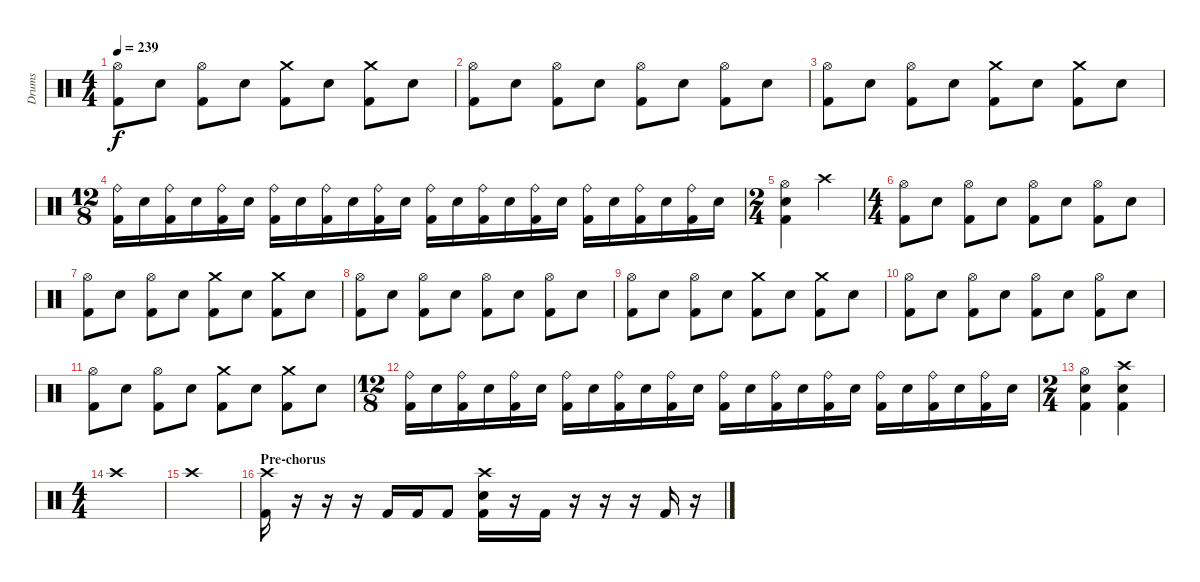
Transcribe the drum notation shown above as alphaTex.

\track ("Drums" "Drums") {instrument percussion}
\staff {score}
\articulation defaults
\ts (4 4)
\tempo 239
\clef neutral
\ks c
("Hi-Hat (open)" "Kick (hit) 2").8{dy f} "Electric Snare (hit)".8 ("Hi-Hat (open)" "Kick (hit) 2").8 "Electric Snare (hit)".8 ("Crash medium (hit)" "Kick (hit) 2").8 "Electric Snare (hit)".8 ("Crash medium (hit)" "Kick (hit) 2").8 "Electric Snare (hit)".8 |
("Hi-Hat (open)" "Kick (hit) 2").8 "Electric Snare (hit)".8 ("Hi-Hat (open)" "Kick (hit) 2").8 "Electric Snare (hit)".8 ("Hi-Hat (open)" "Kick (hit) 2").8 "Electric Snare (hit)".8 ("Hi-Hat (open)" "Kick (hit) 2").8 "Electric Snare (hit)".8 |
("Hi-Hat (open)" "Kick (hit) 2").8 "Electric Snare (hit)".8 ("Hi-Hat (open)" "Kick (hit) 2").8 "Electric Snare (hit)".8 ("Crash medium (hit)" "Kick (hit) 2").8 "Electric Snare (hit)".8 ("Crash medium (hit)" "Kick (hit) 2").8 "Electric Snare (hit)".8 |
\ts (12 8)
("Ride (bell)" "Kick (hit) 2").16 "Electric Snare (hit)".16 ("Ride (bell)" "Kick (hit) 2").16 "Electric Snare (hit)".16 ("Ride (bell)" "Kick (hit) 2").16 "Electric Snare (hit)".16 ("Ride (bell)" "Kick (hit) 2").16 "Electric Snare (hit)".16 ("Ride (bell)" "Kick (hit) 2").16 "Electric Snare (hit)".16 ("Ride (bell)" "Kick (hit) 2").16 "Electric Snare (hit)".16 ("Ride (bell)" "Kick (hit) 2").16 "Electric Snare (hit)".16 ("Ride (bell)" "Kick (hit) 2").16 "Electric Snare (hit)".16 ("Ride (bell)" "Kick (hit) 2").16 "Electric Snare (hit)".16 ("Ride (bell)" "Kick (hit) 2").16 "Electric Snare (hit)".16 ("Ride (bell)" "Kick (hit) 2").16 "Electric Snare (hit)".16 ("Ride (bell)" "Kick (hit) 2").16 "Electric Snare (hit)".16 |
\ts (2 4)
("Hi-Hat (open)" "Electric Snare (hit)" "Kick (hit) 2").4 "Crash high (hit)".4 |
\ts (4 4)
("Hi-Hat (open)" "Kick (hit) 2").8 "Electric Snare (hit)".8 ("Hi-Hat (open)" "Kick (hit) 2").8 "Electric Snare (hit)".8 ("Hi-Hat (open)" "Kick (hit) 2").8 "Electric Snare (hit)".8 ("Hi-Hat (open)" "Kick (hit) 2").8 "Electric Snare (hit)".8 |
("Hi-Hat (open)" "Kick (hit) 2").8 "Electric Snare (hit)".8 ("Hi-Hat (open)" "Kick (hit) 2").8 "Electric Snare (hit)".8 ("Crash medium (hit)" "Kick (hit) 2").8 "Electric Snare (hit)".8 ("Crash medium (hit)" "Kick (hit) 2").8 "Electric Snare (hit)".8 |
("Hi-Hat (open)" "Kick (hit) 2").8 "Electric Snare (hit)".8 ("Hi-Hat (open)" "Kick (hit) 2").8 "Electric Snare (hit)".8 ("Hi-Hat (open)" "Kick (hit) 2").8 "Electric Snare (hit)".8 ("Hi-Hat (open)" "Kick (hit) 2").8 "Electric Snare (hit)".8 |
("Hi-Hat (open)" "Kick (hit) 2").8 "Electric Snare (hit)".8 ("Hi-Hat (open)" "Kick (hit) 2").8 "Electric Snare (hit)".8 ("Crash medium (hit)" "Kick (hit) 2").8 "Electric Snare (hit)".8 ("Crash medium (hit)" "Kick (hit) 2").8 "Electric Snare (hit)".8 |
("Hi-Hat (open)" "Kick (hit) 2").8 "Electric Snare (hit)".8 ("Hi-Hat (open)" "Kick (hit) 2").8 "Electric Snare (hit)".8 ("Hi-Hat (open)" "Kick (hit) 2").8 "Electric Snare (hit)".8 ("Hi-Hat (open)" "Kick (hit) 2").8 "Electric Snare (hit)".8 |
("Hi-Hat (open)" "Kick (hit) 2").8 "Electric Snare (hit)".8 ("Hi-Hat (open)" "Kick (hit) 2").8 "Electric Snare (hit)".8 ("Crash medium (hit)" "Kick (hit) 2").8 "Electric Snare (hit)".8 ("Crash medium (hit)" "Kick (hit) 2").8 "Electric Snare (hit)".8 |
\ts (12 8)
("Ride (bell)" "Kick (hit) 2").16 "Electric Snare (hit)".16 ("Ride (bell)" "Kick (hit) 2").16 "Electric Snare (hit)".16 ("Ride (bell)" "Kick (hit) 2").16 "Electric Snare (hit)".16 ("Ride (bell)" "Kick (hit) 2").16 "Electric Snare (hit)".16 ("Ride (bell)" "Kick (hit) 2").16 "Electric Snare (hit)".16 ("Ride (bell)" "Kick (hit) 2").16 "Electric Snare (hit)".16 ("Ride (bell)" "Kick (hit) 2").16 "Electric Snare (hit)".16 ("Ride (bell)" "Kick (hit) 2").16 "Electric Snare (hit)".16 ("Ride (bell)" "Kick (hit) 2").16 "Electric Snare (hit)".16 ("Ride (bell)" "Kick (hit) 2").16 "Electric Snare (hit)".16 ("Ride (bell)" "Kick (hit) 2").16 "Electric Snare (hit)".16 ("Ride (bell)" "Kick (hit) 2").16 "Electric Snare (hit)".16 |
\ts (2 4)
("Hi-Hat (open)" "Electric Snare (hit)" "Kick (hit) 2").4 ("Crash high (hit)" "Electric Snare (hit)" "Kick (hit) 2").4 |
\ts (4 4)
\section ("" "")
"Crash high (hit)".1 |
"Crash high (hit)".1 |
\section ("" "Pre-chorus")
("Crash high (hit)" "Kick (hit) 2").16 r.16 r.16 r.16 "Kick (hit) 2".16 "Kick (hit) 2".16 "Kick (hit) 2".8 ("Crash high (hit)" "Electric Snare (hit)" "Kick (hit) 2").16 r.16 "Kick (hit) 2".16 r.16 r.16 r.16 "Kick (hit) 2".16 r.16
